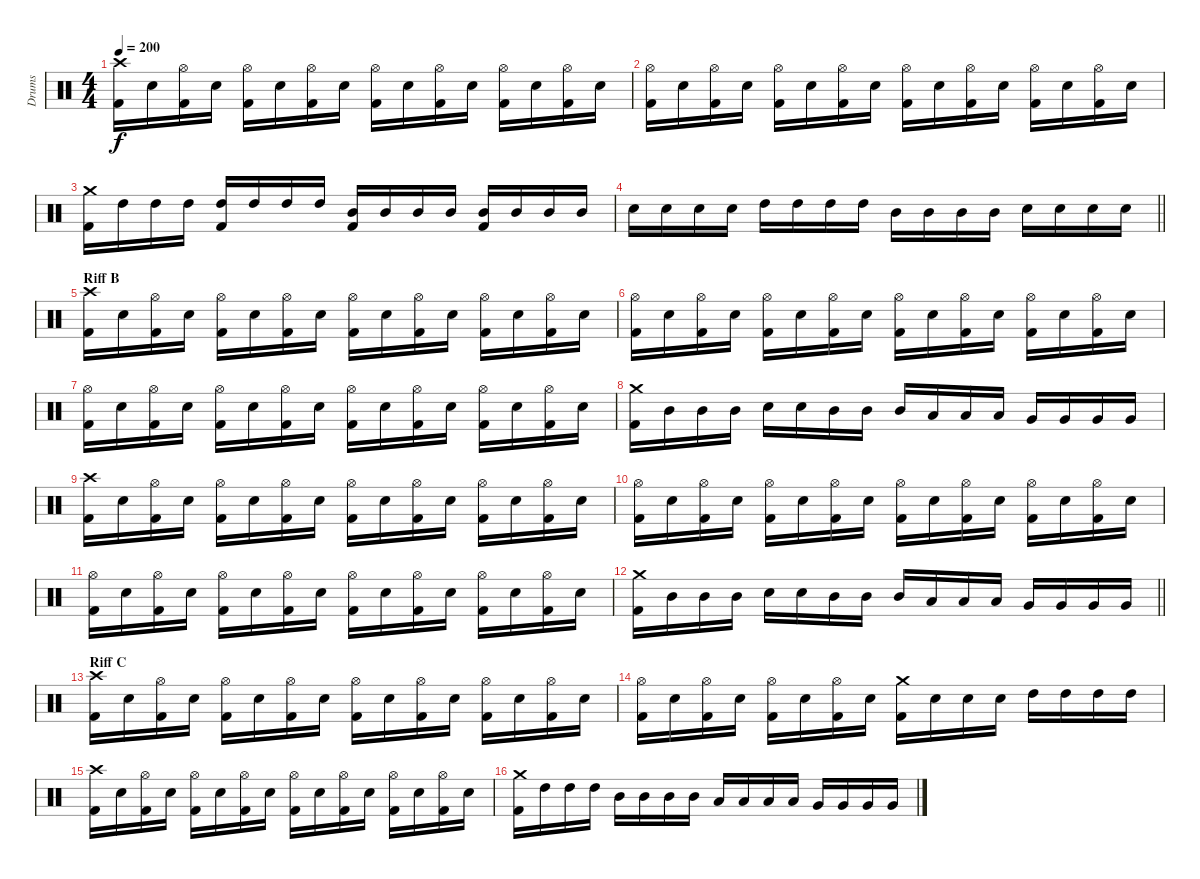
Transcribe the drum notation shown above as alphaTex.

\track ("Drums" "Drums") {instrument percussion}
\staff {score}
\articulation defaults
\ts (4 4)
\tempo 200
\clef neutral
\ks c
("Crash high (hit)" "Kick (hit) 2").16{dy f} "Electric Snare (hit)".16 ("Hi-Hat (open)" "Kick (hit) 2").16 "Electric Snare (hit)".16 ("Hi-Hat (open)" "Kick (hit) 2").16 "Electric Snare (hit)".16 ("Hi-Hat (open)" "Kick (hit) 2").16 "Electric Snare (hit)".16 ("Hi-Hat (open)" "Kick (hit) 2").16 "Electric Snare (hit)".16 ("Hi-Hat (open)" "Kick (hit) 2").16 "Electric Snare (hit)".16 ("Hi-Hat (open)" "Kick (hit) 2").16 "Electric Snare (hit)".16 ("Hi-Hat (open)" "Kick (hit) 2").16 "Electric Snare (hit)".16 |
("Hi-Hat (open)" "Kick (hit) 2").16 "Electric Snare (hit)".16 ("Hi-Hat (open)" "Kick (hit) 2").16 "Electric Snare (hit)".16 ("Hi-Hat (open)" "Kick (hit) 2").16 "Electric Snare (hit)".16 ("Hi-Hat (open)" "Kick (hit) 2").16 "Electric Snare (hit)".16 ("Hi-Hat (open)" "Kick (hit) 2").16 "Electric Snare (hit)".16 ("Hi-Hat (open)" "Kick (hit) 2").16 "Electric Snare (hit)".16 ("Hi-Hat (open)" "Kick (hit) 2").16 "Electric Snare (hit)".16 ("Hi-Hat (open)" "Kick (hit) 2").16 "Electric Snare (hit)".16 |
("Crash medium (hit)" "Kick (hit) 2").16 "High Tom (hit)".16 "High Tom (hit)".16 "High Tom (hit)".16 ("High Tom (hit)" "Kick (hit) 2").16 "High Tom (hit)".16 "High Tom (hit)".16 "High Tom (hit)".16 ("Mid Tom (hit)" "Kick (hit) 2").16 "Mid Tom (hit)".16 "Mid Tom (hit)".16 "Mid Tom (hit)".16 ("Mid Tom (hit)" "Kick (hit) 2").16 "Mid Tom (hit)".16 "Mid Tom (hit)".16 "Mid Tom (hit)".16 |
\barLineRight lightlight "Electric Snare (hit)".16 "Electric Snare (hit)".16 "Electric Snare (hit)".16 "Electric Snare (hit)".16 "High Tom (hit)".16 "High Tom (hit)".16 "High Tom (hit)".16 "High Tom (hit)".16 "Mid Tom (hit)".16 "Mid Tom (hit)".16 "Mid Tom (hit)".16 "Mid Tom (hit)".16 "Electric Snare (hit)".16 "Electric Snare (hit)".16 "Electric Snare (hit)".16 "Electric Snare (hit)".16
|
\section ("" "Riff B")
("Crash high (hit)" "Kick (hit) 2").16 "Electric Snare (hit)".16 ("Hi-Hat (open)" "Kick (hit) 2").16 "Electric Snare (hit)".16 ("Hi-Hat (open)" "Kick (hit) 2").16 "Electric Snare (hit)".16 ("Hi-Hat (open)" "Kick (hit) 2").16 "Electric Snare (hit)".16 ("Hi-Hat (open)" "Kick (hit) 2").16 "Electric Snare (hit)".16 ("Hi-Hat (open)" "Kick (hit) 2").16 "Electric Snare (hit)".16 ("Hi-Hat (open)" "Kick (hit) 2").16 "Electric Snare (hit)".16 ("Hi-Hat (open)" "Kick (hit) 2").16 "Electric Snare (hit)".16 |
("Hi-Hat (open)" "Kick (hit) 2").16 "Electric Snare (hit)".16 ("Hi-Hat (open)" "Kick (hit) 2").16 "Electric Snare (hit)".16 ("Hi-Hat (open)" "Kick (hit) 2").16 "Electric Snare (hit)".16 ("Hi-Hat (open)" "Kick (hit) 2").16 "Electric Snare (hit)".16 ("Hi-Hat (open)" "Kick (hit) 2").16 "Electric Snare (hit)".16 ("Hi-Hat (open)" "Kick (hit) 2").16 "Electric Snare (hit)".16 ("Hi-Hat (open)" "Kick (hit) 2").16 "Electric Snare (hit)".16 ("Hi-Hat (open)" "Kick (hit) 2").16 "Electric Snare (hit)".16 |
("Hi-Hat (open)" "Kick (hit) 2").16 "Electric Snare (hit)".16 ("Hi-Hat (open)" "Kick (hit) 2").16 "Electric Snare (hit)".16 ("Hi-Hat (open)" "Kick (hit) 2").16 "Electric Snare (hit)".16 ("Hi-Hat (open)" "Kick (hit) 2").16 "Electric Snare (hit)".16 ("Hi-Hat (open)" "Kick (hit) 2").16 "Electric Snare (hit)".16 ("Hi-Hat (open)" "Kick (hit) 2").16 "Electric Snare (hit)".16 ("Hi-Hat (open)" "Kick (hit) 2").16 "Electric Snare (hit)".16 ("Hi-Hat (open)" "Kick (hit) 2").16 "Electric Snare (hit)".16 |
("Crash medium (hit)" "Kick (hit) 2").16 "Mid Tom (hit)".16 "Mid Tom (hit)".16 "Mid Tom (hit)".16 "Electric Snare (hit)".16 "Electric Snare (hit)".16 "Mid Tom (hit)".16 "Mid Tom (hit)".16 "Mid Tom (hit)".16 "Low Tom (hit)".16 "Low Tom (hit)".16 "Low Tom (hit)".16 "Very Low Tom (hit)".16 "Very Low Tom (hit)".16 "Very Low Tom (hit)".16 "Very Low Tom (hit)".16 |
("Crash high (hit)" "Kick (hit) 2").16 "Electric Snare (hit)".16 ("Hi-Hat (open)" "Kick (hit) 2").16 "Electric Snare (hit)".16 ("Hi-Hat (open)" "Kick (hit) 2").16 "Electric Snare (hit)".16 ("Hi-Hat (open)" "Kick (hit) 2").16 "Electric Snare (hit)".16 ("Hi-Hat (open)" "Kick (hit) 2").16 "Electric Snare (hit)".16 ("Hi-Hat (open)" "Kick (hit) 2").16 "Electric Snare (hit)".16 ("Hi-Hat (open)" "Kick (hit) 2").16 "Electric Snare (hit)".16 ("Hi-Hat (open)" "Kick (hit) 2").16 "Electric Snare (hit)".16 |
("Hi-Hat (open)" "Kick (hit) 2").16 "Electric Snare (hit)".16 ("Hi-Hat (open)" "Kick (hit) 2").16 "Electric Snare (hit)".16 ("Hi-Hat (open)" "Kick (hit) 2").16 "Electric Snare (hit)".16 ("Hi-Hat (open)" "Kick (hit) 2").16 "Electric Snare (hit)".16 ("Hi-Hat (open)" "Kick (hit) 2").16 "Electric Snare (hit)".16 ("Hi-Hat (open)" "Kick (hit) 2").16 "Electric Snare (hit)".16 ("Hi-Hat (open)" "Kick (hit) 2").16 "Electric Snare (hit)".16 ("Hi-Hat (open)" "Kick (hit) 2").16 "Electric Snare (hit)".16 |
("Hi-Hat (open)" "Kick (hit) 2").16 "Electric Snare (hit)".16 ("Hi-Hat (open)" "Kick (hit) 2").16 "Electric Snare (hit)".16 ("Hi-Hat (open)" "Kick (hit) 2").16 "Electric Snare (hit)".16 ("Hi-Hat (open)" "Kick (hit) 2").16 "Electric Snare (hit)".16 ("Hi-Hat (open)" "Kick (hit) 2").16 "Electric Snare (hit)".16 ("Hi-Hat (open)" "Kick (hit) 2").16 "Electric Snare (hit)".16 ("Hi-Hat (open)" "Kick (hit) 2").16 "Electric Snare (hit)".16 ("Hi-Hat (open)" "Kick (hit) 2").16 "Electric Snare (hit)".16 |
\barLineRight lightlight
("Crash medium (hit)" "Kick (hit) 2").16 "Mid Tom (hit)".16 "Mid Tom (hit)".16 "Mid Tom (hit)".16 "Electric Snare (hit)".16 "Electric Snare (hit)".16 "Mid Tom (hit)".16 "Mid Tom (hit)".16 "Mid Tom (hit)".16 "Low Tom (hit)".16 "Low Tom (hit)".16 "Low Tom (hit)".16 "Very Low Tom (hit)".16 "Very Low Tom (hit)".16 "Very Low Tom (hit)".16 "Very Low Tom (hit)".16 |
\section ("" "Riff C")
("Crash high (hit)" "Kick (hit) 2").16 "Electric Snare (hit)".16 ("Hi-Hat (open)" "Kick (hit) 2").16 "Electric Snare (hit)".16 ("Hi-Hat (open)" "Kick (hit) 2").16 "Electric Snare (hit)".16 ("Hi-Hat (open)" "Kick (hit) 2").16 "Electric Snare (hit)".16 ("Hi-Hat (open)" "Kick (hit) 2").16 "Electric Snare (hit)".16 ("Hi-Hat (open)" "Kick (hit) 2").16 "Electric Snare (hit)".16 ("Hi-Hat (open)" "Kick (hit) 2").16 "Electric Snare (hit)".16 ("Hi-Hat (open)" "Kick (hit) 2").16 "Electric Snare (hit)".16 |
("Hi-Hat (open)" "Kick (hit) 2").16 "Electric Snare (hit)".16 ("Hi-Hat (open)" "Kick (hit) 2").16 "Electric Snare (hit)".16 ("Hi-Hat (open)" "Kick (hit) 2").16 "Electric Snare (hit)".16 ("Hi-Hat (open)" "Kick (hit) 2").16 "Electric Snare (hit)".16 ("Crash medium (hit)" "Kick (hit) 2").16 "Electric Snare (hit)".16 "Electric Snare (hit)".16 "Electric Snare (hit)".16 "High Tom (hit)".16 "High Tom (hit)".16 "High Tom (hit)".16 "High Tom (hit)".16 |
("Crash high (hit)" "Kick (hit) 2").16 "Electric Snare (hit)".16 ("Hi-Hat (open)" "Kick (hit) 2").16 "Electric Snare (hit)".16 ("Hi-Hat (open)" "Kick (hit) 2").16 "Electric Snare (hit)".16 ("Hi-Hat (open)" "Kick (hit) 2").16 "Electric Snare (hit)".16 ("Hi-Hat (open)" "Kick (hit) 2").16 "Electric Snare (hit)".16 ("Hi-Hat (open)" "Kick (hit) 2").16 "Electric Snare (hit)".16 ("Hi-Hat (open)" "Kick (hit) 2").16 "Electric Snare (hit)".16 ("Hi-Hat (open)" "Kick (hit) 2").16 "Electric Snare (hit)".16 |
("Crash medium (hit)" "Kick (hit) 2").16 "High Tom (hit)".16 "High Tom (hit)".16 "High Tom (hit)".16 "Mid Tom (hit)".16 "Mid Tom (hit)".16 "Mid Tom (hit)".16 "Mid Tom (hit)".16 "Low Tom (hit)".16 "Low Tom (hit)".16 "Low Tom (hit)".16 "Low Tom (hit)".16 "Very Low Tom (hit)".16 "Very Low Tom (hit)".16 "Very Low Tom (hit)".16 "Very Low Tom (hit)".16
